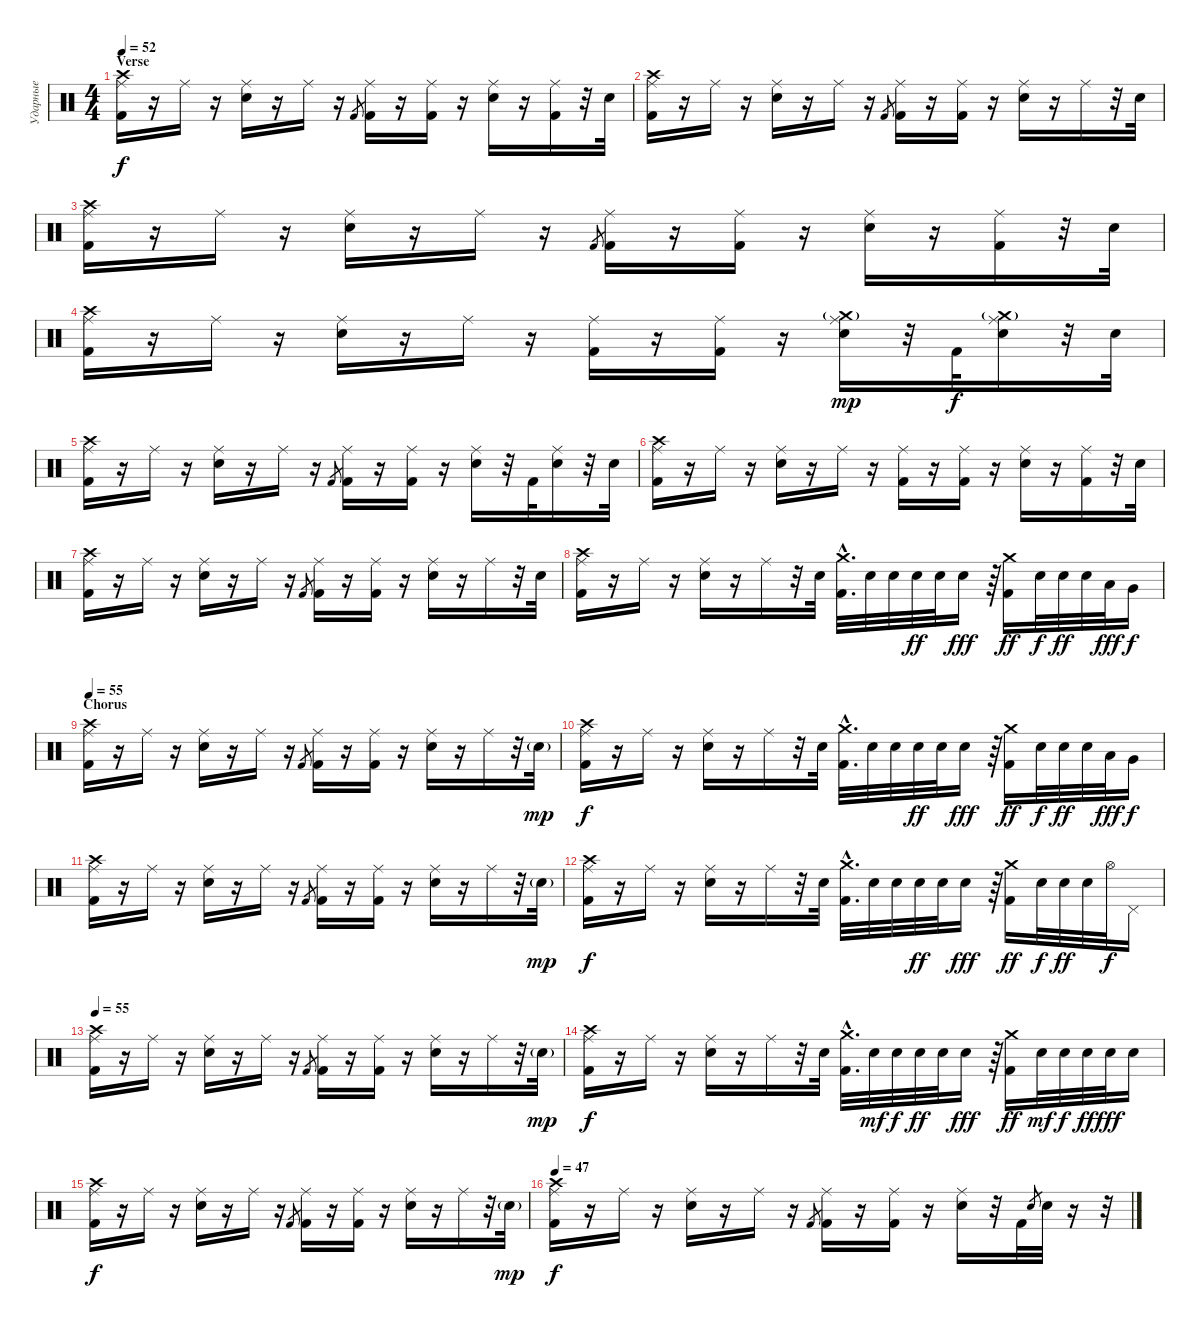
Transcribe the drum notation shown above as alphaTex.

\track ("Ударные" "Ударные") {instrument percussion}
\staff {score}
\articulation defaults
\ts (4 4)
\section ("" "Verse")
\tempo 52
\clef neutral
\ks c
("Crash high (hit)" "Ride (middle)" "Kick (hit) 2").16{dy f} r.16 "Ride (middle)".16 r.16 ("Ride (middle)" "Electric Snare (hit)").16 r.16 "Ride (middle)".16 r.16 "Kick (hit) 2".8{gr} ("Ride (middle)" "Kick (hit) 2").16 r.16 ("Ride (middle)" "Kick (hit) 2").16 r.16 ("Ride (middle)" "Electric Snare (hit)").16 r.16 ("Ride (middle)" "Kick (hit) 2").16 r.32 "Electric Snare (hit)".32 |
("Crash high (hit)" "Ride (middle)" "Kick (hit) 2").16 r.16 "Ride (middle)".16 r.16 ("Ride (middle)" "Electric Snare (hit)").16 r.16 "Ride (middle)".16 r.16 "Kick (hit) 2".8{gr} ("Ride (middle)" "Kick (hit) 2").16 r.16 ("Ride (middle)" "Kick (hit) 2").16 r.16 ("Ride (middle)" "Electric Snare (hit)").16 r.16 "Ride (middle)".16 r.32 "Electric Snare (hit)".32 |
("Crash high (hit)" "Ride (middle)" "Kick (hit) 2").16 r.16 "Ride (middle)".16 r.16 ("Ride (middle)" "Electric Snare (hit)").16 r.16 "Ride (middle)".16 r.16 "Kick (hit) 2".8{gr} ("Ride (middle)" "Kick (hit) 2").16 r.16 ("Ride (middle)" "Kick (hit) 2").16 r.16 ("Ride (middle)" "Electric Snare (hit)").16 r.16 ("Ride (middle)" "Kick (hit) 2").16 r.32 "Electric Snare (hit)".32 |
("Crash high (hit)" "Ride (middle)" "Kick (hit) 2").16 r.16 "Ride (middle)".16 r.16 ("Ride (middle)" "Electric Snare (hit)").16 r.16 "Ride (middle)".16 r.16 ("Ride (middle)" "Kick (hit) 2").16 r.16 ("Ride (middle)" "Kick (hit) 2").16 r.16 ("Crash medium (hit)"{g} "Ride (middle)" "Electric Snare (hit)").16{dy mp} r.32 "Kick (hit) 2".32{dy f} ("Crash medium (hit)"{g} "Ride (middle)" "Electric Snare (hit)").16 r.32 "Electric Snare (hit)".32 |
("Crash high (hit)" "Ride (middle)" "Kick (hit) 2").16 r.16 "Ride (middle)".16 r.16 ("Ride (middle)" "Electric Snare (hit)").16 r.16 "Ride (middle)".16 r.16 "Kick (hit) 2".8{gr} ("Ride (middle)" "Kick (hit) 2").16 r.16 ("Ride (middle)" "Kick (hit) 2").16 r.16 ("Ride (middle)" "Electric Snare (hit)").16 r.32 "Kick (hit) 2".32 ("Ride (middle)" "Electric Snare (hit)").16 r.32 "Electric Snare (hit)".32 |
("Crash high (hit)" "Ride (middle)" "Kick (hit) 2").16 r.16 "Ride (middle)".16 r.16 ("Ride (middle)" "Electric Snare (hit)").16 r.16 "Ride (middle)".16 r.16 ("Ride (middle)" "Kick (hit) 2").16 r.16 ("Ride (middle)" "Kick (hit) 2").16 r.16 ("Ride (middle)" "Electric Snare (hit)").16 r.16 ("Ride (middle)" "Kick (hit) 2").16 r.32 "Electric Snare (hit)".32 |
("Crash high (hit)" "Ride (middle)" "Kick (hit) 2").16 r.16 "Ride (middle)".16 r.16 ("Ride (middle)" "Electric Snare (hit)").16 r.16 "Ride (middle)".16 r.16 "Kick (hit) 2".8{gr} ("Ride (middle)" "Kick (hit) 2").16 r.16 ("Ride (middle)" "Kick (hit) 2").16 r.16 ("Ride (middle)" "Electric Snare (hit)").16 r.16 "Ride (middle)".16 r.32 "Electric Snare (hit)".32 |
("Crash high (hit)" "Ride (middle)" "Kick (hit) 2").16 r.16 "Ride (middle)".16 r.16 ("Ride (middle)" "Electric Snare (hit)").16 r.16 "Ride (middle)".16 r.32 "Electric Snare (hit)".32 ("Crash medium (hit)"{hac} "Kick (hit) 2"{hac}).32{d} "Electric Snare (hit)".32 "Electric Snare (hit)".32 "Electric Snare (hit)".32{dy ff} "Electric Snare (hit)".32 "Electric Snare (hit)".16{dy fff} r.64 ("Crash medium (hit)" "Kick (hit) 2").16{dy ff} "Electric Snare (hit)".32{dy f} "Electric Snare (hit)".32{dy ff} "Electric Snare (hit)".32 "Low Tom (hit)".32{dy fff} "Very Low Tom (hit)".16{dy f} |
\section ("" "Chorus")
\tempo 55
("Crash high (hit)" "Ride (middle)" "Kick (hit) 2").16 r.16 "Ride (middle)".16 r.16 ("Ride (middle)" "Electric Snare (hit)").16 r.16 "Ride (middle)".16 r.16 "Kick (hit) 2".8{gr} ("Ride (middle)" "Kick (hit) 2").16 r.16 ("Ride (middle)" "Kick (hit) 2").16 r.16 ("Ride (middle)" "Electric Snare (hit)").16 r.16 "Ride (middle)".16 r.32 "Electric Snare (hit)"{g}.32{dy mp} |
("Crash high (hit)" "Ride (middle)" "Kick (hit) 2").16{dy f} r.16 "Ride (middle)".16 r.16 ("Ride (middle)" "Electric Snare (hit)").16 r.16 "Ride (middle)".16 r.32 "Electric Snare (hit)".32 ("Crash medium (hit)"{hac} "Kick (hit) 2"{hac}).32{d} "Electric Snare (hit)".32 "Electric Snare (hit)".32 "Electric Snare (hit)".32{dy ff} "Electric Snare (hit)".32 "Electric Snare (hit)".16{dy fff} r.64 ("Crash medium (hit)" "Kick (hit) 2").16{dy ff} "Electric Snare (hit)".32{dy f} "Electric Snare (hit)".32{dy ff} "Electric Snare (hit)".32 "Low Tom (hit)".32{dy fff} "Very Low Tom (hit)".16{dy f} |
("Crash high (hit)" "Ride (middle)" "Kick (hit) 2").16 r.16 "Ride (middle)".16 r.16 ("Ride (middle)" "Electric Snare (hit)").16 r.16 "Ride (middle)".16 r.16 "Kick (hit) 2".8{gr} ("Ride (middle)" "Kick (hit) 2").16 r.16 ("Ride (middle)" "Kick (hit) 2").16 r.16 ("Ride (middle)" "Electric Snare (hit)").16 r.16 "Ride (middle)".16 r.32 "Electric Snare (hit)"{g}.32{dy mp} |
("Crash high (hit)" "Ride (middle)" "Kick (hit) 2").16{dy f} r.16 "Ride (middle)".16 r.16 ("Ride (middle)" "Electric Snare (hit)").16 r.16 "Ride (middle)".16 r.32 "Electric Snare (hit)".32 ("Crash medium (hit)"{hac} "Kick (hit) 2"{hac}).32{d} "Electric Snare (hit)".32 "Electric Snare (hit)".32 "Electric Snare (hit)".32{dy ff} "Electric Snare (hit)".32 "Electric Snare (hit)".16{dy fff} r.64 ("Crash medium (hit)" "Kick (hit) 2").16{dy ff} "Electric Snare (hit)".32{dy f} "Electric Snare (hit)".32{dy ff} "Electric Snare (hit)".32 "Hi-Hat (open)".32{dy f} "Pedal Hi-Hat (hit)".16 |
\tempo 55
("Crash high (hit)" "Ride (middle)" "Kick (hit) 2").16 r.16 "Ride (middle)".16 r.16 ("Ride (middle)" "Electric Snare (hit)").16 r.16 "Ride (middle)".16 r.16 "Kick (hit) 2".8{gr} ("Ride (middle)" "Kick (hit) 2").16 r.16 ("Ride (middle)" "Kick (hit) 2").16 r.16 ("Ride (middle)" "Electric Snare (hit)").16 r.16 "Ride (middle)".16 r.32 "Electric Snare (hit)"{g}.32{dy mp} |
("Crash high (hit)" "Ride (middle)" "Kick (hit) 2").16{dy f} r.16 "Ride (middle)".16 r.16 ("Ride (middle)" "Electric Snare (hit)").16 r.16 "Ride (middle)".16 r.32 "Electric Snare (hit)".32 ("Crash medium (hit)"{hac} "Kick (hit) 2"{hac}).32{d} "Electric Snare (hit)".32{dy mf} "Electric Snare (hit)".32{dy f} "Electric Snare (hit)".32{dy ff} "Electric Snare (hit)".32 "Electric Snare (hit)".16{dy fff} r.64 ("Crash medium (hit)" "Kick (hit) 2").16{dy ff} "Electric Snare (hit)".32{dy mf} "Electric Snare (hit)".32{dy f} "Electric Snare (hit)".32{dy ff} "Electric Snare (hit)".32{dy fff} "Electric Snare (hit)".16 |
("Crash high (hit)" "Ride (middle)" "Kick (hit) 2").16{dy f} r.16 "Ride (middle)".16 r.16 ("Ride (middle)" "Electric Snare (hit)").16 r.16 "Ride (middle)".16 r.16 "Kick (hit) 2".8{gr} ("Ride (middle)" "Kick (hit) 2").16 r.16 ("Ride (middle)" "Kick (hit) 2").16 r.16 ("Ride (middle)" "Electric Snare (hit)").16 r.16 "Ride (middle)".16 r.32 "Electric Snare (hit)"{g}.32{dy mp} |
\tempo 47
("Crash high (hit)" "Ride (middle)" "Kick (hit) 2").16{dy f} r.16 "Ride (middle)".16 r.16 ("Ride (middle)" "Electric Snare (hit)").16 r.16 "Ride (middle)".16 r.16 "Kick (hit) 2".8{gr} ("Ride (middle)" "Kick (hit) 2").16 r.16 ("Ride (middle)" "Kick (hit) 2").16 r.16 ("Ride (middle)" "Electric Snare (hit)").16 r.32 "Kick (hit) 2".32 "Electric Snare (hit)".8{gr} "Electric Snare (hit)".32 r.16 r.32
